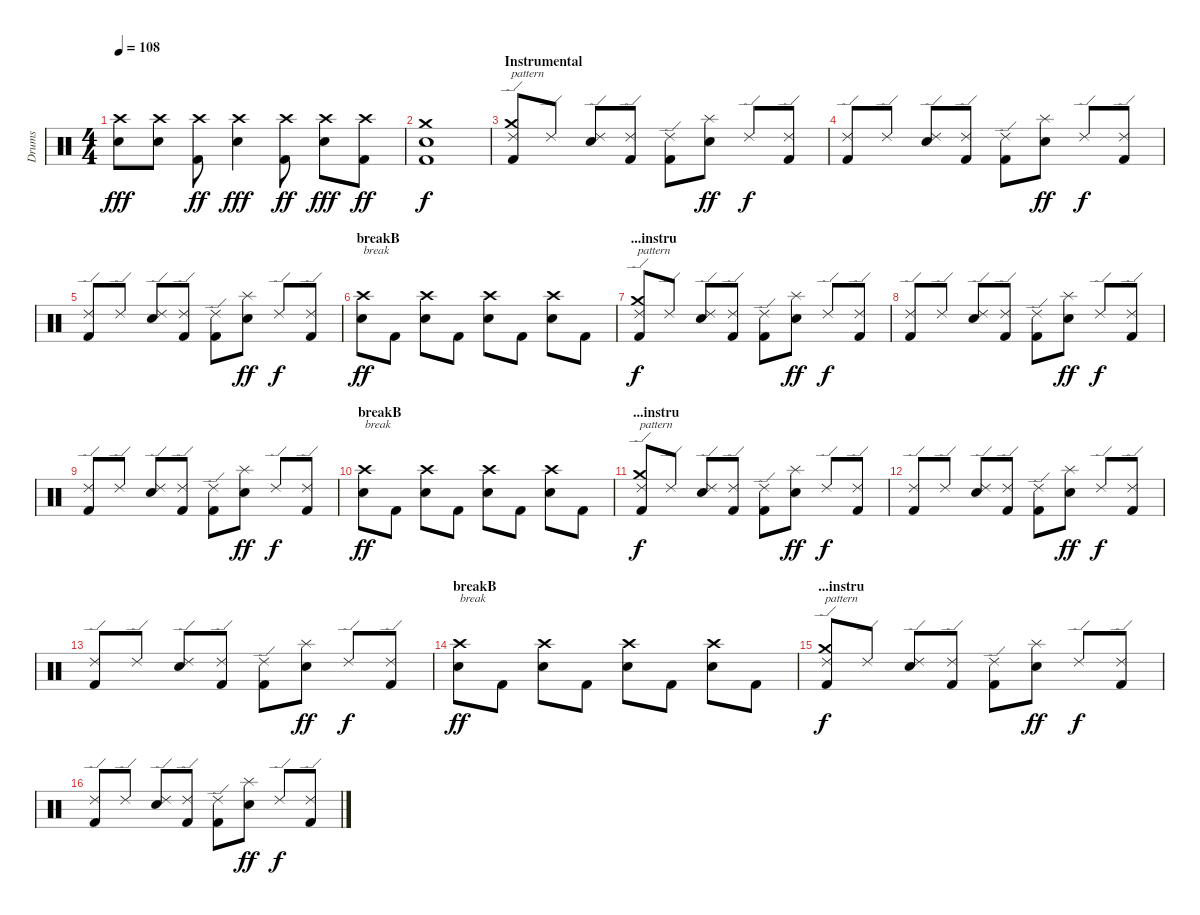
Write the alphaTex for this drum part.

\track ("Drums" "Drums") {instrument percussion}
\staff {score}
\articulation defaults
\ts (4 4)
\tempo 108
\clef neutral
\ks c
("Crash high (hit)" "Electric Snare (hit)").8{dy fff} ("Crash high (hit)" "Electric Snare (hit)").8 ("Crash high (hit)" "Kick (hit) 2").8{dy ff} ("Crash high (hit)" "Electric Snare (hit)").4{dy fff} ("Crash high (hit)" "Kick (hit) 2").8{dy ff} ("Crash high (hit)" "Electric Snare (hit)").8{dy fff} ("Crash high (hit)" "Kick (hit) 2").8{dy ff} |
("Crash medium (hit)" "Electric Snare (hit)" "Kick (hit) 2").1{dy f} |
\section ("" "Instrumental")
("Ride (edge) 2" "Crash medium (hit)" "Kick (hit) 2").8{txt "pattern"} "Ride (edge) 2".8 ("Ride (edge) 2" "Electric Snare (hit)").8 ("Ride (edge) 2" "Kick (hit) 2").8 ("Ride (edge) 2" "Kick (hit) 2").8 ("Splash (hit)" "Electric Snare (hit)").8{dy ff} "Ride (edge) 2".8{dy f} ("Ride (edge) 2" "Kick (hit) 2").8 |
("Ride (edge) 2" "Kick (hit) 2").8 "Ride (edge) 2".8 ("Ride (edge) 2" "Electric Snare (hit)").8 ("Ride (edge) 2" "Kick (hit) 2").8 ("Ride (edge) 2" "Kick (hit) 2").8 ("Splash (hit)" "Electric Snare (hit)").8{dy ff} "Ride (edge) 2".8{dy f} ("Ride (edge) 2" "Kick (hit) 2").8 |
("Ride (edge) 2" "Kick (hit) 2").8 "Ride (edge) 2".8 ("Ride (edge) 2" "Electric Snare (hit)").8 ("Ride (edge) 2" "Kick (hit) 2").8 ("Ride (edge) 2" "Kick (hit) 2").8 ("Splash (hit)" "Electric Snare (hit)").8{dy ff} "Ride (edge) 2".8{dy f} ("Ride (edge) 2" "Kick (hit) 2").8 |
\section ("" "breakB")
("Crash high (hit)" "Electric Snare (hit)").8{txt "break" dy ff} "Kick (hit) 2".8 ("Crash high (hit)" "Electric Snare (hit)").8 "Kick (hit) 2".8 ("Crash high (hit)" "Electric Snare (hit)").8 "Kick (hit) 2".8 ("Crash high (hit)" "Electric Snare (hit)").8 "Kick (hit) 2".8 |
\section ("" "...instru")
("Ride (edge) 2" "Crash medium (hit)" "Kick (hit) 2").8{txt "pattern" dy f} "Ride (edge) 2".8 ("Ride (edge) 2" "Electric Snare (hit)").8 ("Ride (edge) 2" "Kick (hit) 2").8 ("Ride (edge) 2" "Kick (hit) 2").8 ("Splash (hit)" "Electric Snare (hit)").8{dy ff} "Ride (edge) 2".8{dy f} ("Ride (edge) 2" "Kick (hit) 2").8 |
("Ride (edge) 2" "Kick (hit) 2").8 "Ride (edge) 2".8 ("Ride (edge) 2" "Electric Snare (hit)").8 ("Ride (edge) 2" "Kick (hit) 2").8 ("Ride (edge) 2" "Kick (hit) 2").8 ("Splash (hit)" "Electric Snare (hit)").8{dy ff} "Ride (edge) 2".8{dy f} ("Ride (edge) 2" "Kick (hit) 2").8 |
("Ride (edge) 2" "Kick (hit) 2").8 "Ride (edge) 2".8 ("Ride (edge) 2" "Electric Snare (hit)").8 ("Ride (edge) 2" "Kick (hit) 2").8 ("Ride (edge) 2" "Kick (hit) 2").8 ("Splash (hit)" "Electric Snare (hit)").8{dy ff} "Ride (edge) 2".8{dy f} ("Ride (edge) 2" "Kick (hit) 2").8 |
\section ("" "breakB")
("Crash high (hit)" "Electric Snare (hit)").8{txt "break" dy ff} "Kick (hit) 2".8 ("Crash high (hit)" "Electric Snare (hit)").8 "Kick (hit) 2".8 ("Crash high (hit)" "Electric Snare (hit)").8 "Kick (hit) 2".8 ("Crash high (hit)" "Electric Snare (hit)").8 "Kick (hit) 2".8 |
\section ("" "...instru")
("Ride (edge) 2" "Crash medium (hit)" "Kick (hit) 2").8{txt "pattern" dy f} "Ride (edge) 2".8 ("Ride (edge) 2" "Electric Snare (hit)").8 ("Ride (edge) 2" "Kick (hit) 2").8 ("Ride (edge) 2" "Kick (hit) 2").8 ("Splash (hit)" "Electric Snare (hit)").8{dy ff} "Ride (edge) 2".8{dy f} ("Ride (edge) 2" "Kick (hit) 2").8 |
("Ride (edge) 2" "Kick (hit) 2").8 "Ride (edge) 2".8 ("Ride (edge) 2" "Electric Snare (hit)").8 ("Ride (edge) 2" "Kick (hit) 2").8 ("Ride (edge) 2" "Kick (hit) 2").8 ("Splash (hit)" "Electric Snare (hit)").8{dy ff} "Ride (edge) 2".8{dy f} ("Ride (edge) 2" "Kick (hit) 2").8 |
("Ride (edge) 2" "Kick (hit) 2").8 "Ride (edge) 2".8 ("Ride (edge) 2" "Electric Snare (hit)").8 ("Ride (edge) 2" "Kick (hit) 2").8 ("Ride (edge) 2" "Kick (hit) 2").8 ("Splash (hit)" "Electric Snare (hit)").8{dy ff} "Ride (edge) 2".8{dy f} ("Ride (edge) 2" "Kick (hit) 2").8 |
\section ("" "breakB")
("Crash high (hit)" "Electric Snare (hit)").8{txt "break" dy ff} "Kick (hit) 2".8 ("Crash high (hit)" "Electric Snare (hit)").8 "Kick (hit) 2".8 ("Crash high (hit)" "Electric Snare (hit)").8 "Kick (hit) 2".8 ("Crash high (hit)" "Electric Snare (hit)").8 "Kick (hit) 2".8 |
\section ("" "...instru")
("Ride (edge) 2" "Crash medium (hit)" "Kick (hit) 2").8{txt "pattern" dy f} "Ride (edge) 2".8 ("Ride (edge) 2" "Electric Snare (hit)").8 ("Ride (edge) 2" "Kick (hit) 2").8 ("Ride (edge) 2" "Kick (hit) 2").8 ("Splash (hit)" "Electric Snare (hit)").8{dy ff} "Ride (edge) 2".8{dy f} ("Ride (edge) 2" "Kick (hit) 2").8 |
("Ride (edge) 2" "Kick (hit) 2").8 "Ride (edge) 2".8 ("Ride (edge) 2" "Electric Snare (hit)").8 ("Ride (edge) 2" "Kick (hit) 2").8 ("Ride (edge) 2" "Kick (hit) 2").8 ("Splash (hit)" "Electric Snare (hit)").8{dy ff} "Ride (edge) 2".8{dy f} ("Ride (edge) 2" "Kick (hit) 2").8
